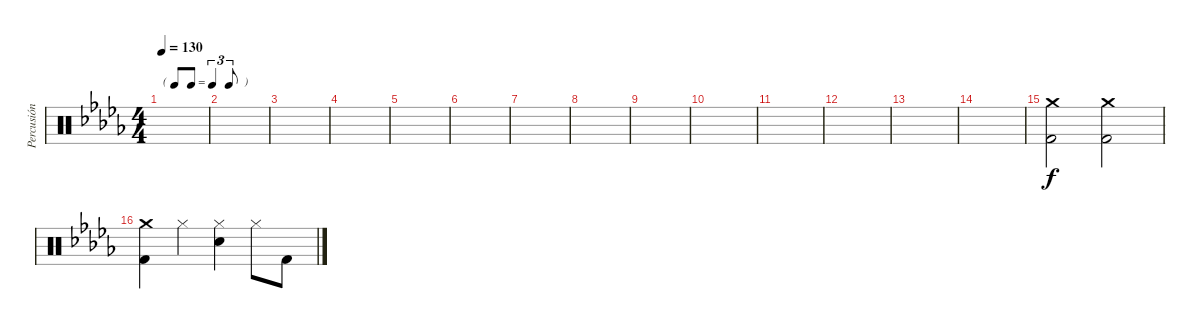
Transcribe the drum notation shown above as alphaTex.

\track ("Percusión" "Percusión") {instrument percussion}
\staff {score}
\articulation defaults
\ts (4 4)
\tf triplet8th
\tempo 130
\clef neutral
\ks db
|
|
|
|
|
|
|
|
|
|
|
|
|
|
("Crash medium (hit)" "Kick (hit) 2").2 ("Crash medium (hit)" "Kick (hit) 2").2 |
("Crash medium (hit)" "Kick (hit) 2").4 "Hi-Hat (closed)".4 ("Hi-Hat (closed)" "Snare (hit) 2").4 "Hi-Hat (closed)".8 "Kick (hit) 2".8
